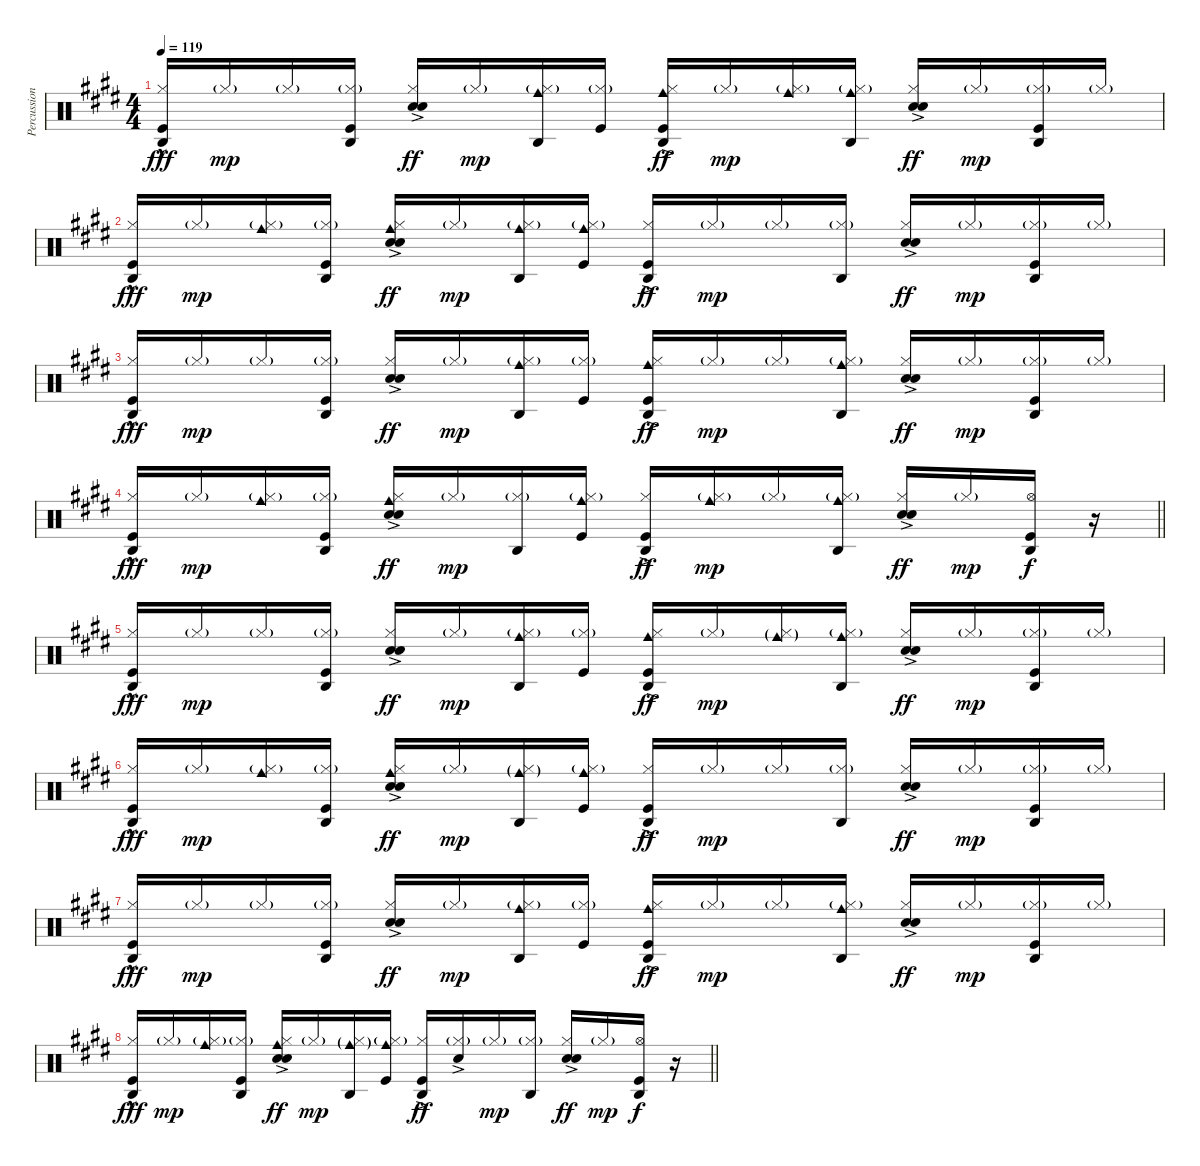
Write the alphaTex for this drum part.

\track ("Percussion" "Percussion") {instrument percussion}
\staff {score}
\articulation defaults
\ts (4 4)
\tempo 119
\clef neutral
\ks e
("Agogo high (hit)" "Hi-Hat (closed)" "Kick (hit)"{hac}).16{dy fff} "Hi-Hat (closed)"{g}.16{dy mp} "Hi-Hat (closed)"{g}.16 ("Agogo high (hit)" "Hi-Hat (closed)"{g} "Kick (hit)").16 ("Hi-Hat (closed)" "Hand Clap (hit)"{ac} "Snare (hit) 2"{ac}).16{dy ff} "Hi-Hat (closed)"{g}.16{dy mp} ("Agogo high (hit)" "Cowbell medium (hit)" "Hi-Hat (closed)"{g}).16 ("Hi-Hat (closed)"{g} "Kick (hit)").16 ("Agogo high (hit)" "Cowbell medium (hit)" "Hi-Hat (closed)" "Kick (hit)"{ac}).16{dy ff} "Hi-Hat (closed)"{g}.16{dy mp} ("Cowbell medium (hit)" "Hi-Hat (closed)"{g}).16 ("Agogo high (hit)" "Cowbell medium (hit)" "Hi-Hat (closed)"{g}).16 ("Hi-Hat (closed)" "Hand Clap (hit)"{ac} "Snare (hit) 2"{ac}).16{dy ff} "Hi-Hat (closed)"{g}.16{dy mp} ("Agogo high (hit)" "Hi-Hat (closed)"{g} "Kick (hit)").16 "Hi-Hat (closed)"{g}.16 |
("Agogo high (hit)" "Hi-Hat (closed)" "Kick (hit)"{hac}).16{dy fff} "Hi-Hat (closed)"{g}.16{dy mp} ("Cowbell medium (hit)" "Hi-Hat (closed)"{g}).16 ("Agogo high (hit)" "Hi-Hat (closed)"{g} "Kick (hit)").16 ("Cowbell medium (hit)" "Hi-Hat (closed)" "Hand Clap (hit)"{ac} "Snare (hit) 2"{ac}).16{dy ff} "Hi-Hat (closed)"{g}.16{dy mp} ("Agogo high (hit)" "Cowbell medium (hit)" "Hi-Hat (closed)"{g}).16 ("Cowbell medium (hit)" "Hi-Hat (closed)"{g} "Kick (hit)").16 ("Agogo high (hit)" "Hi-Hat (closed)" "Kick (hit)"{ac}).16{dy ff} "Hi-Hat (closed)"{g}.16{dy mp} "Hi-Hat (closed)"{g}.16 ("Agogo high (hit)" "Hi-Hat (closed)"{g}).16 ("Hi-Hat (closed)" "Hand Clap (hit)"{ac} "Snare (hit) 2"{ac}).16{dy ff} "Hi-Hat (closed)"{g}.16{dy mp} ("Agogo high (hit)" "Hi-Hat (closed)"{g} "Kick (hit)").16 "Hi-Hat (closed)"{g}.16 |
("Agogo high (hit)" "Hi-Hat (closed)" "Kick (hit)"{hac}).16{dy fff} "Hi-Hat (closed)"{g}.16{dy mp} "Hi-Hat (closed)"{g}.16 ("Agogo high (hit)" "Hi-Hat (closed)"{g} "Kick (hit)").16 ("Hi-Hat (closed)" "Hand Clap (hit)"{ac} "Snare (hit) 2"{ac}).16{dy ff} "Hi-Hat (closed)"{g}.16{dy mp} ("Agogo high (hit)" "Cowbell medium (hit)" "Hi-Hat (closed)"{g}).16 ("Hi-Hat (closed)"{g} "Kick (hit)").16 ("Agogo high (hit)" "Cowbell medium (hit)" "Hi-Hat (closed)" "Kick (hit)"{ac}).16{dy ff} "Hi-Hat (closed)"{g}.16{dy mp} "Hi-Hat (closed)"{g}.16 ("Agogo high (hit)" "Cowbell medium (hit)" "Hi-Hat (closed)"{g}).16 ("Hi-Hat (closed)" "Hand Clap (hit)"{ac} "Snare (hit) 2"{ac}).16{dy ff} "Hi-Hat (closed)"{g}.16{dy mp} ("Agogo high (hit)" "Hi-Hat (closed)"{g} "Kick (hit)").16 "Hi-Hat (closed)"{g}.16 |
\barLineRight lightlight
("Agogo high (hit)" "Hi-Hat (closed)" "Kick (hit)"{hac}).16{dy fff} "Hi-Hat (closed)"{g}.16{dy mp} ("Cowbell medium (hit)" "Hi-Hat (closed)"{g}).16 ("Agogo high (hit)" "Hi-Hat (closed)"{g} "Kick (hit)").16 ("Cowbell medium (hit)" "Hi-Hat (closed)" "Hand Clap (hit)"{ac} "Snare (hit) 2"{ac}).16{dy ff} "Hi-Hat (closed)"{g}.16{dy mp} ("Agogo high (hit)" "Hi-Hat (closed)"{g}).16 ("Cowbell medium (hit)" "Hi-Hat (closed)"{g} "Kick (hit)").16 ("Agogo high (hit)" "Hi-Hat (closed)" "Kick (hit)"{ac}).16{dy ff} ("Cowbell medium (hit)" "Hi-Hat (closed)"{g}).16{dy mp} "Hi-Hat (closed)"{g}.16 ("Agogo high (hit)" "Cowbell medium (hit)" "Hi-Hat (closed)"{g}).16 ("Hi-Hat (closed)" "Hand Clap (hit)"{ac} "Snare (hit) 2"{ac}).16{dy ff} "Hi-Hat (closed)"{g}.16{dy mp} ("Agogo high (hit)" "Hi-Hat (open)" "Kick (hit)").16{dy f} r.16 |
("Agogo high (hit)" "Hi-Hat (closed)" "Kick (hit)"{hac}).16{dy fff} "Hi-Hat (closed)"{g}.16{dy mp} "Hi-Hat (closed)"{g}.16 ("Agogo high (hit)" "Hi-Hat (closed)"{g} "Kick (hit)").16 ("Hi-Hat (closed)" "Hand Clap (hit)"{ac} "Snare (hit) 2"{ac}).16{dy ff} "Hi-Hat (closed)"{g}.16{dy mp} ("Agogo high (hit)" "Cowbell medium (hit)" "Hi-Hat (closed)"{g}).16 ("Hi-Hat (closed)"{g} "Kick (hit)").16 ("Agogo high (hit)" "Cowbell medium (hit)" "Hi-Hat (closed)" "Kick (hit)"{ac}).16{dy ff} "Hi-Hat (closed)"{g}.16{dy mp} ("Cowbell medium (hit)"{g} "Hi-Hat (closed)"{g}).16 ("Agogo high (hit)" "Cowbell medium (hit)" "Hi-Hat (closed)"{g}).16 ("Hi-Hat (closed)" "Hand Clap (hit)"{ac} "Snare (hit) 2"{ac}).16{dy ff} "Hi-Hat (closed)"{g}.16{dy mp} ("Agogo high (hit)" "Hi-Hat (closed)"{g} "Kick (hit)").16 "Hi-Hat (closed)"{g}.16 |
("Agogo high (hit)" "Hi-Hat (closed)" "Kick (hit)"{hac}).16{dy fff} "Hi-Hat (closed)"{g}.16{dy mp} ("Cowbell medium (hit)" "Hi-Hat (closed)"{g}).16 ("Agogo high (hit)" "Hi-Hat (closed)"{g} "Kick (hit)").16 ("Cowbell medium (hit)" "Hi-Hat (closed)" "Hand Clap (hit)"{ac} "Snare (hit) 2"{ac}).16{dy ff} "Hi-Hat (closed)"{g}.16{dy mp} ("Agogo high (hit)" "Cowbell medium (hit)"{g} "Hi-Hat (closed)"{g}).16 ("Cowbell medium (hit)" "Hi-Hat (closed)"{g} "Kick (hit)").16 ("Agogo high (hit)" "Hi-Hat (closed)" "Kick (hit)"{ac}).16{dy ff} "Hi-Hat (closed)"{g}.16{dy mp} "Hi-Hat (closed)"{g}.16 ("Agogo high (hit)" "Hi-Hat (closed)"{g}).16 ("Hi-Hat (closed)" "Hand Clap (hit)"{ac} "Snare (hit) 2"{ac}).16{dy ff} "Hi-Hat (closed)"{g}.16{dy mp} ("Agogo high (hit)" "Hi-Hat (closed)"{g} "Kick (hit)").16 "Hi-Hat (closed)"{g}.16 |
("Agogo high (hit)" "Hi-Hat (closed)" "Kick (hit)"{hac}).16{dy fff} "Hi-Hat (closed)"{g}.16{dy mp} "Hi-Hat (closed)"{g}.16 ("Agogo high (hit)" "Hi-Hat (closed)"{g} "Kick (hit)").16 ("Hi-Hat (closed)" "Hand Clap (hit)"{ac} "Snare (hit) 2"{ac}).16{dy ff} "Hi-Hat (closed)"{g}.16{dy mp} ("Agogo high (hit)" "Cowbell medium (hit)" "Hi-Hat (closed)"{g}).16 ("Hi-Hat (closed)"{g} "Kick (hit)").16 ("Agogo high (hit)" "Cowbell medium (hit)" "Hi-Hat (closed)" "Kick (hit)"{ac}).16{dy ff} "Hi-Hat (closed)"{g}.16{dy mp} "Hi-Hat (closed)"{g}.16 ("Agogo high (hit)" "Cowbell medium (hit)" "Hi-Hat (closed)"{g}).16 ("Hi-Hat (closed)" "Hand Clap (hit)"{ac} "Snare (hit) 2"{ac}).16{dy ff} "Hi-Hat (closed)"{g}.16{dy mp} ("Agogo high (hit)" "Hi-Hat (closed)"{g} "Kick (hit)").16 "Hi-Hat (closed)"{g}.16 |
\barLineRight lightlight
("Agogo high (hit)" "Hi-Hat (closed)" "Kick (hit)"{hac}).16{dy fff} "Hi-Hat (closed)"{g}.16{dy mp} ("Cowbell medium (hit)" "Hi-Hat (closed)"{g}).16 ("Agogo high (hit)" "Hi-Hat (closed)"{g} "Kick (hit)").16 ("Cowbell medium (hit)" "Hi-Hat (closed)" "Hand Clap (hit)"{ac} "Snare (hit) 2"{ac}).16{dy ff} "Hi-Hat (closed)"{g}.16{dy mp} ("Agogo high (hit)" "Cowbell medium (hit)"{g} "Hi-Hat (closed)"{g}).16 ("Cowbell medium (hit)" "Hi-Hat (closed)"{g} "Kick (hit)").16 ("Agogo high (hit)" "Hi-Hat (closed)" "Kick (hit)"{ac}).16{dy ff} ("Hi-Hat (closed)"{g} "Hand Clap (hit)"{ac}).16 "Hi-Hat (closed)"{g}.16{dy mp} ("Agogo high (hit)" "Hi-Hat (closed)"{g}).16 ("Hi-Hat (closed)" "Hand Clap (hit)"{ac} "Snare (hit) 2"{ac}).16{dy ff} "Hi-Hat (closed)"{g}.16{dy mp} ("Agogo high (hit)" "Hi-Hat (open)" "Kick (hit)").16{dy f} r.16
